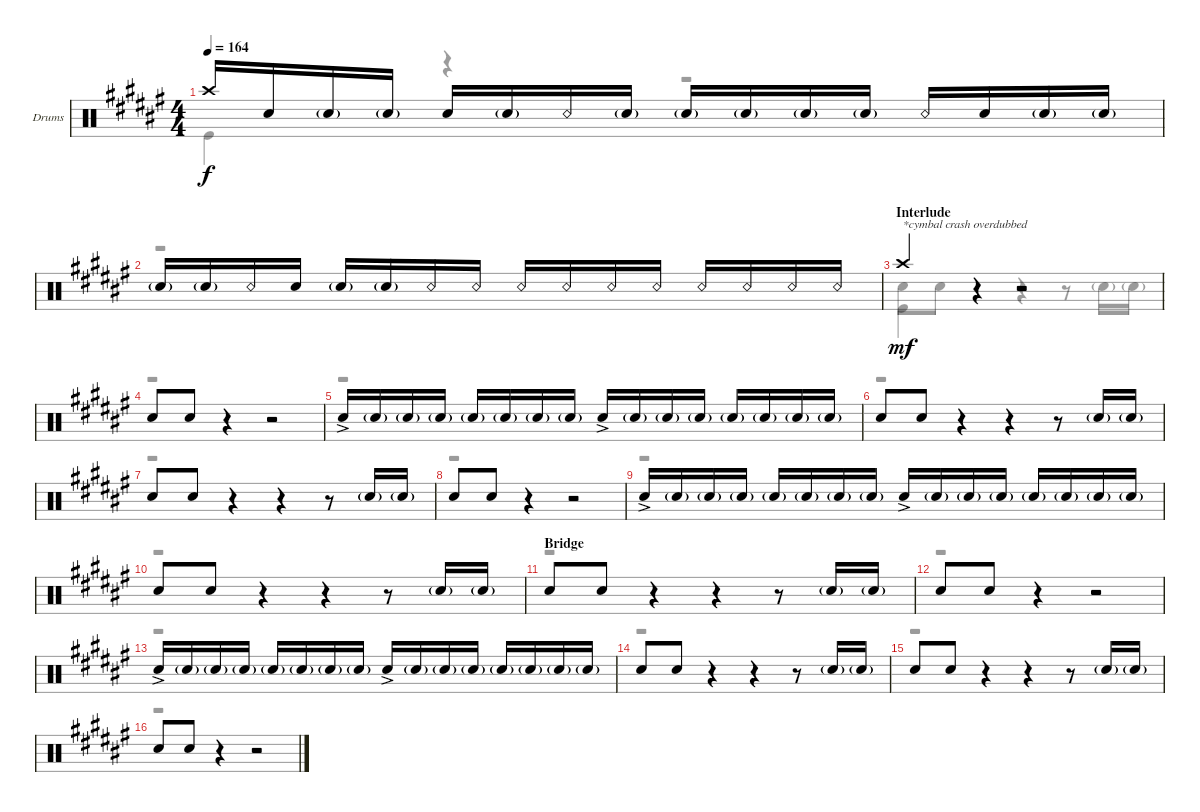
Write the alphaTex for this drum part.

\defaultSystemsLayout 4
\bracketExtendMode groupsimilarinstruments
\firstSystemTrackNameOrientation horizontal
\otherSystemsTrackNameOrientation horizontal
\track ("Drums" "Drums") {instrument percussion}
\staff {score}
\articulation defaults
\voice
\ts (4 4)
\tempo 164
\clef neutral
\ks f# "Crash high (hit)".16{dy f} "Snare (hit) 2".16 "Snare (hit) 2"{g}.16 "Snare (hit) 2"{g}.16 "Snare (hit) 2".16 "Snare (hit) 2"{g}.16 "Snare (rim shot)".16 "Snare (hit) 2"{g}.16 "Snare (hit) 2"{g}.16 "Snare (hit) 2"{g}.16 "Snare (hit) 2"{g}.16 "Snare (hit) 2"{g}.16 "Snare (rim shot)".16 "Snare (hit) 2".16 "Snare (hit) 2"{g}.16 "Snare (hit) 2"{g}.16
|
"Snare (hit) 2"{g}.16 "Snare (hit) 2"{g}.16 "Snare (rim shot)".16 "Snare (hit) 2".16 "Snare (hit) 2"{g}.16 "Snare (hit) 2"{g}.16 "Snare (rim shot)".16 "Snare (rim shot)".16 "Snare (rim shot)".16 "Snare (rim shot)".16 "Snare (rim shot)".16 "Snare (rim shot)".16 "Snare (rim shot)".16 "Snare (rim shot)".16 "Snare (rim shot)".16 "Snare (rim shot)".16 |
\section ("" "Interlude")
"Crash high (hit)".4{txt "*cymbal crash overdubbed" dy mf} r.4 r.2 |
"Snare (hit) 2".8 "Snare (hit) 2".8 r.4 r.2 |
"Snare (hit) 2"{ac}.16 "Snare (hit) 2"{g}.16 "Snare (hit) 2"{g}.16 "Snare (hit) 2"{g}.16 "Snare (hit) 2"{g}.16 "Snare (hit) 2"{g}.16 "Snare (hit) 2"{g}.16 "Snare (hit) 2"{g}.16 "Snare (hit) 2"{ac}.16 "Snare (hit) 2"{g}.16 "Snare (hit) 2"{g}.16 "Snare (hit) 2"{g}.16 "Snare (hit) 2"{g}.16 "Snare (hit) 2"{g}.16 "Snare (hit) 2"{g}.16 "Snare (hit) 2"{g}.16 |
"Snare (hit) 2".8 "Snare (hit) 2".8 r.4 r.4 r.8 "Snare (hit) 2"{g}.16 "Snare (hit) 2"{g}.16 |
"Snare (hit) 2".8 "Snare (hit) 2".8 r.4 r.4 r.8 "Snare (hit) 2"{g}.16 "Snare (hit) 2"{g}.16 |
"Snare (hit) 2".8 "Snare (hit) 2".8 r.4 r.2 |
"Snare (hit) 2"{ac}.16 "Snare (hit) 2"{g}.16 "Snare (hit) 2"{g}.16 "Snare (hit) 2"{g}.16 "Snare (hit) 2"{g}.16 "Snare (hit) 2"{g}.16 "Snare (hit) 2"{g}.16 "Snare (hit) 2"{g}.16 "Snare (hit) 2"{ac}.16 "Snare (hit) 2"{g}.16 "Snare (hit) 2"{g}.16 "Snare (hit) 2"{g}.16 "Snare (hit) 2"{g}.16 "Snare (hit) 2"{g}.16 "Snare (hit) 2"{g}.16 "Snare (hit) 2"{g}.16 |
"Snare (hit) 2".8 "Snare (hit) 2".8 r.4 r.4 r.8 "Snare (hit) 2"{g}.16 "Snare (hit) 2"{g}.16 |
\section ("" "Bridge")
"Snare (hit) 2".8 "Snare (hit) 2".8 r.4 r.4 r.8 "Snare (hit) 2"{g}.16 "Snare (hit) 2"{g}.16 |
"Snare (hit) 2".8 "Snare (hit) 2".8 r.4 r.2 |
"Snare (hit) 2"{ac}.16 "Snare (hit) 2"{g}.16 "Snare (hit) 2"{g}.16 "Snare (hit) 2"{g}.16 "Snare (hit) 2"{g}.16 "Snare (hit) 2"{g}.16 "Snare (hit) 2"{g}.16 "Snare (hit) 2"{g}.16 "Snare (hit) 2"{ac}.16 "Snare (hit) 2"{g}.16 "Snare (hit) 2"{g}.16 "Snare (hit) 2"{g}.16 "Snare (hit) 2"{g}.16 "Snare (hit) 2"{g}.16 "Snare (hit) 2"{g}.16 "Snare (hit) 2"{g}.16 |
"Snare (hit) 2".8 "Snare (hit) 2".8 r.4 r.4 r.8 "Snare (hit) 2"{g}.16 "Snare (hit) 2"{g}.16 |
"Snare (hit) 2".8 "Snare (hit) 2".8 r.4 r.4 r.8 "Snare (hit) 2"{g}.16 "Snare (hit) 2"{g}.16 |
"Snare (hit) 2".8 "Snare (hit) 2".8 r.4 r.2
\voice
\clef neutral
\ottava regular
\simile none
\ks f# "Kick (hit)".4{dy f}
r.4 r.2 |
r.1 |
"Snare (hit) 2".8{dy mf} "Snare (hit) 2".8 r.4 r.4 r.8 "Snare (hit) 2"{g}.16 "Snare (hit) 2"{g}.16 |
r.1 |
r.1 |
r.1 |
r.1 |
r.1 |
r.1 |
r.1 |
r.1 |
r.1 |
r.1 |
r.1 |
r.1 |
r.1
\voice
\clef neutral
\ottava regular
\simile none
\ks f#
|
|
"Kick (hit)".4 r.4 r.2 |
|
|
|
|
|
|
|
|
|
|
|
|
